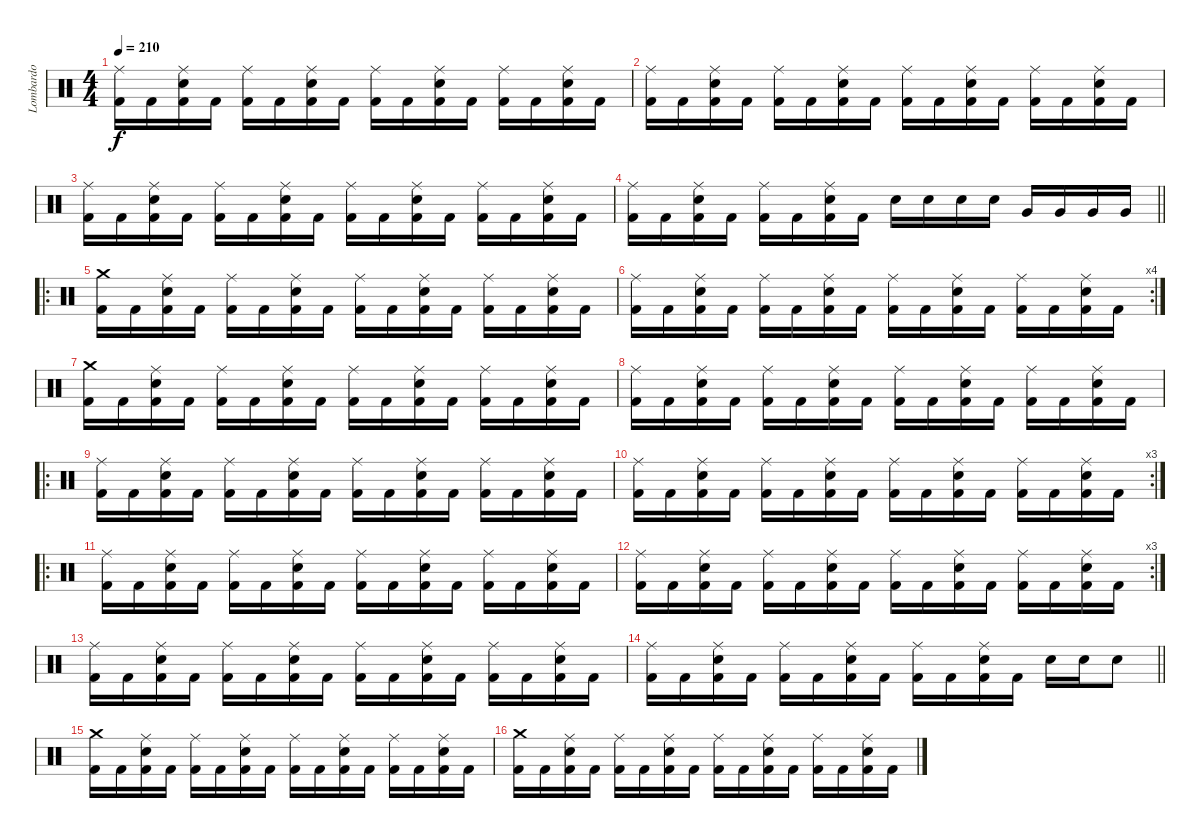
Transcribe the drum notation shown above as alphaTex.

\track ("Lombardo" "Lombardo") {instrument percussion}
\staff {score}
\articulation defaults
\ts (4 4)
\tempo 210
\clef neutral
\ks c
("Ride (middle)" "Kick (hit) 2").16{dy f} "Kick (hit) 2".16 ("Ride (middle)" "Snare (hit) 2" "Kick (hit) 2").16 "Kick (hit) 2".16 ("Ride (middle)" "Kick (hit) 2").16 "Kick (hit) 2".16 ("Ride (middle)" "Snare (hit) 2" "Kick (hit) 2").16 "Kick (hit) 2".16 ("Ride (middle)" "Kick (hit) 2").16 "Kick (hit) 2".16 ("Ride (middle)" "Snare (hit) 2" "Kick (hit) 2").16 "Kick (hit) 2".16 ("Ride (middle)" "Kick (hit) 2").16 "Kick (hit) 2".16 ("Ride (middle)" "Snare (hit) 2" "Kick (hit) 2").16 "Kick (hit) 2".16 |
("Ride (middle)" "Kick (hit) 2").16 "Kick (hit) 2".16 ("Ride (middle)" "Snare (hit) 2" "Kick (hit) 2").16 "Kick (hit) 2".16 ("Ride (middle)" "Kick (hit) 2").16 "Kick (hit) 2".16 ("Ride (middle)" "Snare (hit) 2" "Kick (hit) 2").16 "Kick (hit) 2".16 ("Ride (middle)" "Kick (hit) 2").16 "Kick (hit) 2".16 ("Ride (middle)" "Snare (hit) 2" "Kick (hit) 2").16 "Kick (hit) 2".16 ("Ride (middle)" "Kick (hit) 2").16 "Kick (hit) 2".16 ("Ride (middle)" "Snare (hit) 2" "Kick (hit) 2").16 "Kick (hit) 2".16 |
("Ride (middle)" "Kick (hit) 2").16 "Kick (hit) 2".16 ("Ride (middle)" "Snare (hit) 2" "Kick (hit) 2").16 "Kick (hit) 2".16 ("Ride (middle)" "Kick (hit) 2").16 "Kick (hit) 2".16 ("Ride (middle)" "Snare (hit) 2" "Kick (hit) 2").16 "Kick (hit) 2".16 ("Ride (middle)" "Kick (hit) 2").16 "Kick (hit) 2".16 ("Ride (middle)" "Snare (hit) 2" "Kick (hit) 2").16 "Kick (hit) 2".16 ("Ride (middle)" "Kick (hit) 2").16 "Kick (hit) 2".16 ("Ride (middle)" "Snare (hit) 2" "Kick (hit) 2").16 "Kick (hit) 2".16 |
\barLineRight lightlight
("Ride (middle)" "Kick (hit) 2").16 "Kick (hit) 2".16 ("Ride (middle)" "Snare (hit) 2" "Kick (hit) 2").16 "Kick (hit) 2".16 ("Ride (middle)" "Kick (hit) 2").16 "Kick (hit) 2".16 ("Ride (middle)" "Snare (hit) 2" "Kick (hit) 2").16 "Kick (hit) 2".16 "Snare (hit) 2".16 "Snare (hit) 2".16 "Snare (hit) 2".16 "Snare (hit) 2".16 "Very Low Tom (hit)".16 "Very Low Tom (hit)".16 "Very Low Tom (hit)".16 "Very Low Tom (hit)".16 |
\ro
("Crash medium (hit)" "Kick (hit) 2").16 "Kick (hit) 2".16 ("Ride (middle)" "Snare (hit) 2" "Kick (hit) 2").16 "Kick (hit) 2".16 ("Ride (middle)" "Kick (hit) 2").16 "Kick (hit) 2".16 ("Ride (middle)" "Snare (hit) 2" "Kick (hit) 2").16 "Kick (hit) 2".16 ("Ride (middle)" "Kick (hit) 2").16 "Kick (hit) 2".16 ("Ride (middle)" "Snare (hit) 2" "Kick (hit) 2").16 "Kick (hit) 2".16 ("Ride (middle)" "Kick (hit) 2").16 "Kick (hit) 2".16 ("Ride (middle)" "Snare (hit) 2" "Kick (hit) 2").16 "Kick (hit) 2".16 |
\rc 4
("Ride (middle)" "Kick (hit) 2").16 "Kick (hit) 2".16 ("Ride (middle)" "Snare (hit) 2" "Kick (hit) 2").16 "Kick (hit) 2".16 ("Ride (middle)" "Kick (hit) 2").16 "Kick (hit) 2".16 ("Ride (middle)" "Snare (hit) 2" "Kick (hit) 2").16 "Kick (hit) 2".16 ("Ride (middle)" "Kick (hit) 2").16 "Kick (hit) 2".16 ("Ride (middle)" "Snare (hit) 2" "Kick (hit) 2").16 "Kick (hit) 2".16 ("Ride (middle)" "Kick (hit) 2").16 "Kick (hit) 2".16 ("Ride (middle)" "Snare (hit) 2" "Kick (hit) 2").16 "Kick (hit) 2".16 |
("Crash medium (hit)" "Kick (hit) 2").16 "Kick (hit) 2".16 ("Ride (middle)" "Snare (hit) 2" "Kick (hit) 2").16 "Kick (hit) 2".16 ("Ride (middle)" "Kick (hit) 2").16 "Kick (hit) 2".16 ("Ride (middle)" "Snare (hit) 2" "Kick (hit) 2").16 "Kick (hit) 2".16 ("Ride (middle)" "Kick (hit) 2").16 "Kick (hit) 2".16 ("Ride (middle)" "Snare (hit) 2" "Kick (hit) 2").16 "Kick (hit) 2".16 ("Ride (middle)" "Kick (hit) 2").16 "Kick (hit) 2".16 ("Ride (middle)" "Snare (hit) 2" "Kick (hit) 2").16 "Kick (hit) 2".16 |
("Ride (middle)" "Kick (hit) 2").16 "Kick (hit) 2".16 ("Ride (middle)" "Snare (hit) 2" "Kick (hit) 2").16 "Kick (hit) 2".16 ("Ride (middle)" "Kick (hit) 2").16 "Kick (hit) 2".16 ("Ride (middle)" "Snare (hit) 2" "Kick (hit) 2").16 "Kick (hit) 2".16 ("Ride (middle)" "Kick (hit) 2").16 "Kick (hit) 2".16 ("Ride (middle)" "Snare (hit) 2" "Kick (hit) 2").16 "Kick (hit) 2".16 ("Ride (middle)" "Kick (hit) 2").16 "Kick (hit) 2".16 ("Ride (middle)" "Snare (hit) 2" "Kick (hit) 2").16 "Kick (hit) 2".16 |
\ro
("Ride (middle)" "Kick (hit) 2").16 "Kick (hit) 2".16 ("Ride (middle)" "Snare (hit) 2" "Kick (hit) 2").16 "Kick (hit) 2".16 ("Ride (middle)" "Kick (hit) 2").16 "Kick (hit) 2".16 ("Ride (middle)" "Snare (hit) 2" "Kick (hit) 2").16 "Kick (hit) 2".16 ("Ride (middle)" "Kick (hit) 2").16 "Kick (hit) 2".16 ("Ride (middle)" "Snare (hit) 2" "Kick (hit) 2").16 "Kick (hit) 2".16 ("Ride (middle)" "Kick (hit) 2").16 "Kick (hit) 2".16 ("Ride (middle)" "Snare (hit) 2" "Kick (hit) 2").16 "Kick (hit) 2".16 |
\rc 3
("Ride (middle)" "Kick (hit) 2").16 "Kick (hit) 2".16 ("Ride (middle)" "Snare (hit) 2" "Kick (hit) 2").16 "Kick (hit) 2".16 ("Ride (middle)" "Kick (hit) 2").16 "Kick (hit) 2".16 ("Ride (middle)" "Snare (hit) 2" "Kick (hit) 2").16 "Kick (hit) 2".16 ("Ride (middle)" "Kick (hit) 2").16 "Kick (hit) 2".16 ("Ride (middle)" "Snare (hit) 2" "Kick (hit) 2").16 "Kick (hit) 2".16 ("Ride (middle)" "Kick (hit) 2").16 "Kick (hit) 2".16 ("Ride (middle)" "Snare (hit) 2" "Kick (hit) 2").16 "Kick (hit) 2".16 |
\ro
("Ride (middle)" "Kick (hit) 2").16 "Kick (hit) 2".16 ("Ride (middle)" "Snare (hit) 2" "Kick (hit) 2").16 "Kick (hit) 2".16 ("Ride (middle)" "Kick (hit) 2").16 "Kick (hit) 2".16 ("Ride (middle)" "Snare (hit) 2" "Kick (hit) 2").16 "Kick (hit) 2".16 ("Ride (middle)" "Kick (hit) 2").16 "Kick (hit) 2".16 ("Ride (middle)" "Snare (hit) 2" "Kick (hit) 2").16 "Kick (hit) 2".16 ("Ride (middle)" "Kick (hit) 2").16 "Kick (hit) 2".16 ("Ride (middle)" "Snare (hit) 2" "Kick (hit) 2").16 "Kick (hit) 2".16 |
\rc 3
("Ride (middle)" "Kick (hit) 2").16 "Kick (hit) 2".16 ("Ride (middle)" "Snare (hit) 2" "Kick (hit) 2").16 "Kick (hit) 2".16 ("Ride (middle)" "Kick (hit) 2").16 "Kick (hit) 2".16 ("Ride (middle)" "Snare (hit) 2" "Kick (hit) 2").16 "Kick (hit) 2".16 ("Ride (middle)" "Kick (hit) 2").16 "Kick (hit) 2".16 ("Ride (middle)" "Snare (hit) 2" "Kick (hit) 2").16 "Kick (hit) 2".16 ("Ride (middle)" "Kick (hit) 2").16 "Kick (hit) 2".16 ("Ride (middle)" "Snare (hit) 2" "Kick (hit) 2").16 "Kick (hit) 2".16 |
("Ride (middle)" "Kick (hit) 2").16 "Kick (hit) 2".16 ("Ride (middle)" "Snare (hit) 2" "Kick (hit) 2").16 "Kick (hit) 2".16 ("Ride (middle)" "Kick (hit) 2").16 "Kick (hit) 2".16 ("Ride (middle)" "Snare (hit) 2" "Kick (hit) 2").16 "Kick (hit) 2".16 ("Ride (middle)" "Kick (hit) 2").16 "Kick (hit) 2".16 ("Ride (middle)" "Snare (hit) 2" "Kick (hit) 2").16 "Kick (hit) 2".16 ("Ride (middle)" "Kick (hit) 2").16 "Kick (hit) 2".16 ("Ride (middle)" "Snare (hit) 2" "Kick (hit) 2").16 "Kick (hit) 2".16 |
\barLineRight lightlight
("Ride (middle)" "Kick (hit) 2").16 "Kick (hit) 2".16 ("Ride (middle)" "Snare (hit) 2" "Kick (hit) 2").16 "Kick (hit) 2".16 ("Ride (middle)" "Kick (hit) 2").16 "Kick (hit) 2".16 ("Ride (middle)" "Snare (hit) 2" "Kick (hit) 2").16 "Kick (hit) 2".16 ("Ride (middle)" "Kick (hit) 2").16 "Kick (hit) 2".16 ("Ride (middle)" "Snare (hit) 2" "Kick (hit) 2").16 "Kick (hit) 2".16 "Snare (hit) 2".16 "Snare (hit) 2".16 "Snare (hit) 2".8 |
("Crash medium (hit)" "Kick (hit) 2").16 "Kick (hit) 2".16 ("Ride (middle)" "Snare (hit) 2" "Kick (hit) 2").16 "Kick (hit) 2".16 ("Ride (middle)" "Kick (hit) 2").16 "Kick (hit) 2".16 ("Ride (middle)" "Snare (hit) 2" "Kick (hit) 2").16 "Kick (hit) 2".16 ("Ride (middle)" "Kick (hit) 2").16 "Kick (hit) 2".16 ("Ride (middle)" "Snare (hit) 2" "Kick (hit) 2").16 "Kick (hit) 2".16 ("Ride (middle)" "Kick (hit) 2").16 "Kick (hit) 2".16 ("Ride (middle)" "Snare (hit) 2" "Kick (hit) 2").16 "Kick (hit) 2".16 |
("Crash medium (hit)" "Kick (hit) 2").16 "Kick (hit) 2".16 ("Ride (middle)" "Snare (hit) 2" "Kick (hit) 2").16 "Kick (hit) 2".16 ("Ride (middle)" "Kick (hit) 2").16 "Kick (hit) 2".16 ("Ride (middle)" "Snare (hit) 2" "Kick (hit) 2").16 "Kick (hit) 2".16 ("Ride (middle)" "Kick (hit) 2").16 "Kick (hit) 2".16 ("Ride (middle)" "Snare (hit) 2" "Kick (hit) 2").16 "Kick (hit) 2".16 ("Ride (middle)" "Kick (hit) 2").16 "Kick (hit) 2".16 ("Ride (middle)" "Snare (hit) 2" "Kick (hit) 2").16 "Kick (hit) 2".16
